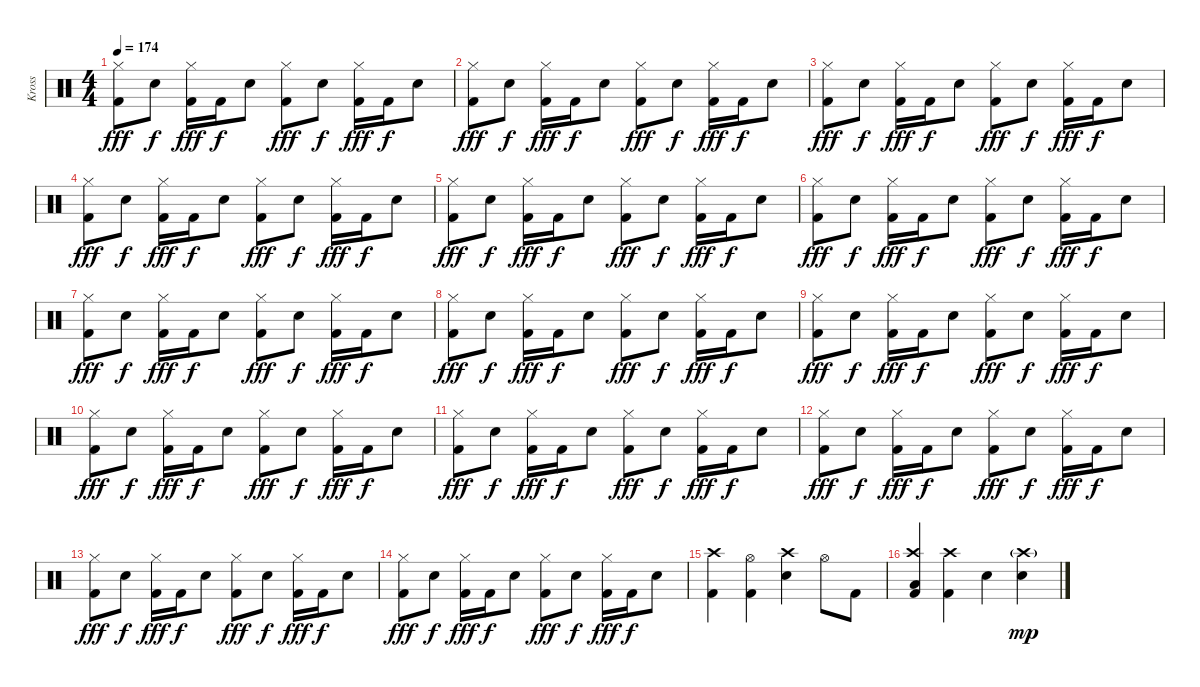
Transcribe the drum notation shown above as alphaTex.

\track ("Kross" "Kross") {instrument percussion}
\staff {score}
\articulation defaults
\ts (4 4)
\tempo 174
\clef neutral
\ks c
("Hi-Hat (closed)" "Kick (hit) 2").8{dy fff} "Electric Snare (hit)".8{dy f} ("Hi-Hat (closed)" "Kick (hit) 2").16{dy fff} "Kick (hit) 2".16{dy f} "Electric Snare (hit)".8 ("Hi-Hat (closed)" "Kick (hit) 2").8{dy fff} "Electric Snare (hit)".8{dy f} ("Hi-Hat (closed)" "Kick (hit) 2").16{dy fff} "Kick (hit) 2".16{dy f} "Electric Snare (hit)".8 |
("Hi-Hat (closed)" "Kick (hit) 2").8{dy fff} "Electric Snare (hit)".8{dy f} ("Hi-Hat (closed)" "Kick (hit) 2").16{dy fff} "Kick (hit) 2".16{dy f} "Electric Snare (hit)".8 ("Hi-Hat (closed)" "Kick (hit) 2").8{dy fff} "Electric Snare (hit)".8{dy f} ("Hi-Hat (closed)" "Kick (hit) 2").16{dy fff} "Kick (hit) 2".16{dy f} "Electric Snare (hit)".8 |
("Hi-Hat (closed)" "Kick (hit) 2").8{dy fff} "Electric Snare (hit)".8{dy f} ("Hi-Hat (closed)" "Kick (hit) 2").16{dy fff} "Kick (hit) 2".16{dy f} "Electric Snare (hit)".8 ("Hi-Hat (closed)" "Kick (hit) 2").8{dy fff} "Electric Snare (hit)".8{dy f} ("Hi-Hat (closed)" "Kick (hit) 2").16{dy fff} "Kick (hit) 2".16{dy f} "Electric Snare (hit)".8 |
("Hi-Hat (closed)" "Kick (hit) 2").8{dy fff} "Electric Snare (hit)".8{dy f} ("Hi-Hat (closed)" "Kick (hit) 2").16{dy fff} "Kick (hit) 2".16{dy f} "Electric Snare (hit)".8 ("Hi-Hat (closed)" "Kick (hit) 2").8{dy fff} "Electric Snare (hit)".8{dy f} ("Hi-Hat (closed)" "Kick (hit) 2").16{dy fff} "Kick (hit) 2".16{dy f} "Electric Snare (hit)".8 |
("Hi-Hat (closed)" "Kick (hit) 2").8{dy fff} "Electric Snare (hit)".8{dy f} ("Hi-Hat (closed)" "Kick (hit) 2").16{dy fff} "Kick (hit) 2".16{dy f} "Electric Snare (hit)".8 ("Hi-Hat (closed)" "Kick (hit) 2").8{dy fff} "Electric Snare (hit)".8{dy f} ("Hi-Hat (closed)" "Kick (hit) 2").16{dy fff} "Kick (hit) 2".16{dy f} "Electric Snare (hit)".8 |
("Hi-Hat (closed)" "Kick (hit) 2").8{dy fff} "Electric Snare (hit)".8{dy f} ("Hi-Hat (closed)" "Kick (hit) 2").16{dy fff} "Kick (hit) 2".16{dy f} "Electric Snare (hit)".8 ("Hi-Hat (closed)" "Kick (hit) 2").8{dy fff} "Electric Snare (hit)".8{dy f} ("Hi-Hat (closed)" "Kick (hit) 2").16{dy fff} "Kick (hit) 2".16{dy f} "Electric Snare (hit)".8 |
("Hi-Hat (closed)" "Kick (hit) 2").8{dy fff} "Electric Snare (hit)".8{dy f} ("Hi-Hat (closed)" "Kick (hit) 2").16{dy fff} "Kick (hit) 2".16{dy f} "Electric Snare (hit)".8 ("Hi-Hat (closed)" "Kick (hit) 2").8{dy fff} "Electric Snare (hit)".8{dy f} ("Hi-Hat (closed)" "Kick (hit) 2").16{dy fff} "Kick (hit) 2".16{dy f} "Electric Snare (hit)".8 |
("Hi-Hat (closed)" "Kick (hit) 2").8{dy fff} "Electric Snare (hit)".8{dy f} ("Hi-Hat (closed)" "Kick (hit) 2").16{dy fff} "Kick (hit) 2".16{dy f} "Electric Snare (hit)".8 ("Hi-Hat (closed)" "Kick (hit) 2").8{dy fff} "Electric Snare (hit)".8{dy f} ("Hi-Hat (closed)" "Kick (hit) 2").16{dy fff} "Kick (hit) 2".16{dy f} "Electric Snare (hit)".8 |
("Hi-Hat (closed)" "Kick (hit) 2").8{dy fff} "Electric Snare (hit)".8{dy f} ("Hi-Hat (closed)" "Kick (hit) 2").16{dy fff} "Kick (hit) 2".16{dy f} "Electric Snare (hit)".8 ("Hi-Hat (closed)" "Kick (hit) 2").8{dy fff} "Electric Snare (hit)".8{dy f} ("Hi-Hat (closed)" "Kick (hit) 2").16{dy fff} "Kick (hit) 2".16{dy f} "Electric Snare (hit)".8 |
("Hi-Hat (closed)" "Kick (hit) 2").8{dy fff} "Electric Snare (hit)".8{dy f} ("Hi-Hat (closed)" "Kick (hit) 2").16{dy fff} "Kick (hit) 2".16{dy f} "Electric Snare (hit)".8 ("Hi-Hat (closed)" "Kick (hit) 2").8{dy fff} "Electric Snare (hit)".8{dy f} ("Hi-Hat (closed)" "Kick (hit) 2").16{dy fff} "Kick (hit) 2".16{dy f} "Electric Snare (hit)".8 |
("Hi-Hat (closed)" "Kick (hit) 2").8{dy fff} "Electric Snare (hit)".8{dy f} ("Hi-Hat (closed)" "Kick (hit) 2").16{dy fff} "Kick (hit) 2".16{dy f} "Electric Snare (hit)".8 ("Hi-Hat (closed)" "Kick (hit) 2").8{dy fff} "Electric Snare (hit)".8{dy f} ("Hi-Hat (closed)" "Kick (hit) 2").16{dy fff} "Kick (hit) 2".16{dy f} "Electric Snare (hit)".8 |
("Hi-Hat (closed)" "Kick (hit) 2").8{dy fff} "Electric Snare (hit)".8{dy f} ("Hi-Hat (closed)" "Kick (hit) 2").16{dy fff} "Kick (hit) 2".16{dy f} "Electric Snare (hit)".8 ("Hi-Hat (closed)" "Kick (hit) 2").8{dy fff} "Electric Snare (hit)".8{dy f} ("Hi-Hat (closed)" "Kick (hit) 2").16{dy fff} "Kick (hit) 2".16{dy f} "Electric Snare (hit)".8 |
("Hi-Hat (closed)" "Kick (hit) 2").8{dy fff} "Electric Snare (hit)".8{dy f} ("Hi-Hat (closed)" "Kick (hit) 2").16{dy fff} "Kick (hit) 2".16{dy f} "Electric Snare (hit)".8 ("Hi-Hat (closed)" "Kick (hit) 2").8{dy fff} "Electric Snare (hit)".8{dy f} ("Hi-Hat (closed)" "Kick (hit) 2").16{dy fff} "Kick (hit) 2".16{dy f} "Electric Snare (hit)".8 |
("Hi-Hat (closed)" "Kick (hit) 2").8{dy fff} "Electric Snare (hit)".8{dy f} ("Hi-Hat (closed)" "Kick (hit) 2").16{dy fff} "Kick (hit) 2".16{dy f} "Electric Snare (hit)".8 ("Hi-Hat (closed)" "Kick (hit) 2").8{dy fff} "Electric Snare (hit)".8{dy f} ("Hi-Hat (closed)" "Kick (hit) 2").16{dy fff} "Kick (hit) 2".16{dy f} "Electric Snare (hit)".8 |
("Crash high (hit)" "Kick (hit) 2").4 ("Hi-Hat (open)" "Kick (hit) 2").4 ("Crash high (hit)" "Electric Snare (hit)").4 "Hi-Hat (open)".8 "Kick (hit) 2".8 |
("Crash high (hit)" "Low Tom (hit)" "Kick (hit) 2").4 ("Crash high (hit)" "Kick (hit) 2").4 "Electric Snare (hit)".4 ("Crash high (hit)"{g} "Electric Snare (hit)").4{dy mp}
